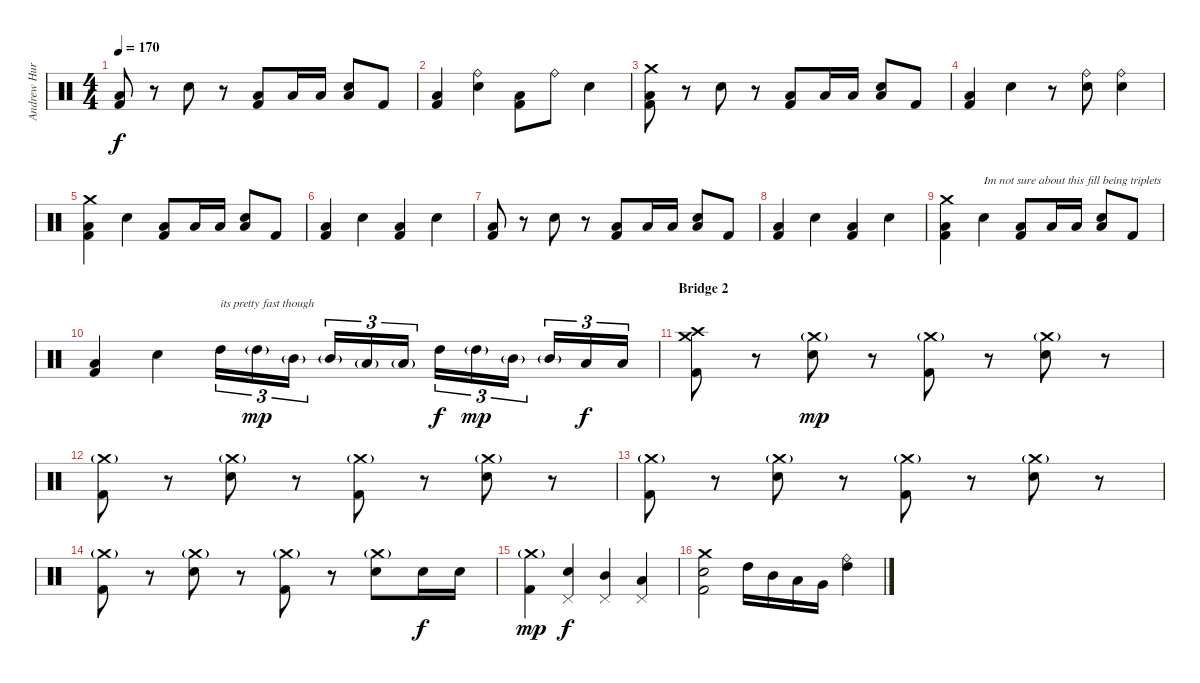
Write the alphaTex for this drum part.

\track ("Andrew Hurley (Drums)" "Andrew Hur") {instrument percussion}
\staff {score}
\articulation defaults
\ts (4 4)
\tempo 170
\clef neutral
\ks c
("Kick (hit) 2" "Low Floor Tom (hit)").8{dy f} r.8 "Electric Snare (hit)".8 r.8 ("Kick (hit) 2" "Low Floor Tom (hit)").8 "Low Floor Tom (hit)".16 "Low Floor Tom (hit)".16 ("Electric Snare (hit)" "Low Floor Tom (hit)").8 "Kick (hit) 2".8 |
("Kick (hit) 2" "Low Floor Tom (hit)").4 ("Ride (bell)" "Electric Snare (hit)").4 ("Kick (hit) 2" "Low Floor Tom (hit)").8 "Ride (bell)".8 "Electric Snare (hit)".4 |
("Crash medium (hit)" "Kick (hit) 2" "Low Floor Tom (hit)").8 r.8 "Electric Snare (hit)".8 r.8 ("Kick (hit) 2" "Low Floor Tom (hit)").8 "Low Floor Tom (hit)".16 "Low Floor Tom (hit)".16 ("Electric Snare (hit)" "Low Floor Tom (hit)").8 "Kick (hit) 2".8 |
("Kick (hit) 2" "Low Floor Tom (hit)").4 "Electric Snare (hit)".4 r.8 ("Ride (bell)" "Electric Snare (hit)").8 ("Ride (bell)" "Electric Snare (hit)").4 |
("Crash medium (hit)" "Kick (hit) 2" "Low Floor Tom (hit)").4 "Electric Snare (hit)".4 ("Kick (hit) 2" "Low Floor Tom (hit)").8 "Low Floor Tom (hit)".16 "Low Floor Tom (hit)".16 ("Electric Snare (hit)" "Low Floor Tom (hit)").8 "Kick (hit) 2".8 |
("Kick (hit) 2" "Low Floor Tom (hit)").4 "Electric Snare (hit)".4 ("Kick (hit) 2" "Low Floor Tom (hit)").4 "Electric Snare (hit)".4 |
("Kick (hit) 2" "Low Floor Tom (hit)").8 r.8 "Electric Snare (hit)".8 r.8 ("Kick (hit) 2" "Low Floor Tom (hit)").8 "Low Floor Tom (hit)".16 "Low Floor Tom (hit)".16 ("Electric Snare (hit)" "Low Floor Tom (hit)").8 "Kick (hit) 2".8 |
("Kick (hit) 2" "Low Floor Tom (hit)").4 "Electric Snare (hit)".4 ("Kick (hit) 2" "Low Floor Tom (hit)").4 "Electric Snare (hit)".4 |
("Crash medium (hit)" "Kick (hit) 2" "Low Floor Tom (hit)").4 "Electric Snare (hit)".4{txt "Im not sure about this fill being triplets"} ("Kick (hit) 2" "Low Floor Tom (hit)").8 "Low Floor Tom (hit)".16 "Low Floor Tom (hit)".16 ("Electric Snare (hit)" "Low Floor Tom (hit)").8 "Kick (hit) 2".8 |
("Kick (hit) 2" "Low Floor Tom (hit)").4 "Electric Snare (hit)".4 "High Tom (hit)".16{tu (3 2) txt "its pretty fast though"} "High Tom (hit)"{g}.16{tu (3 2) dy mp} "Mid Tom (hit)"{g}.16{tu (3 2)} "Mid Tom (hit)"{g}.16{tu (3 2)} "Low Tom (hit)"{g}.16{tu (3 2)} "Low Tom (hit)"{g}.16{tu (3 2)} "High Tom (hit)".16{tu (3 2) dy f} "High Tom (hit)"{g}.16{tu (3 2) dy mp} "Mid Tom (hit)"{g}.16{tu (3 2)} "Mid Tom (hit)"{g}.16{tu (3 2)} "Low Tom (hit)".16{tu (3 2) dy f} "Low Tom (hit)".16{tu (3 2)} |
\section ("" "Bridge 2")
("Crash high (hit)" "Crash medium (hit)" "Kick (hit) 2").8 r.8 ("Crash medium (hit)"{g} "Electric Snare (hit)").8{dy mp} r.8 ("Crash medium (hit)"{g} "Kick (hit) 2").8 r.8 ("Crash medium (hit)"{g} "Electric Snare (hit)").8 r.8 |
("Crash medium (hit)"{g} "Kick (hit) 2").8 r.8 ("Crash medium (hit)"{g} "Electric Snare (hit)").8 r.8 ("Crash medium (hit)"{g} "Kick (hit) 2").8 r.8 ("Crash medium (hit)"{g} "Electric Snare (hit)").8 r.8 |
("Crash medium (hit)"{g} "Kick (hit) 2").8 r.8 ("Crash medium (hit)"{g} "Electric Snare (hit)").8 r.8 ("Crash medium (hit)"{g} "Kick (hit) 2").8 r.8 ("Crash medium (hit)"{g} "Electric Snare (hit)").8 r.8 |
("Crash medium (hit)"{g} "Kick (hit) 2").8 r.8 ("Crash medium (hit)"{g} "Electric Snare (hit)").8 r.8 ("Crash medium (hit)"{g} "Kick (hit) 2").8 r.8 ("Crash medium (hit)"{g} "Electric Snare (hit)").8 "Electric Snare (hit)".16{dy f} "Electric Snare (hit)".16 |
("Crash medium (hit)"{g} "Kick (hit) 2").4{dy mp} ("Pedal Hi-Hat (hit)" "Electric Snare (hit)").4{dy f} ("Pedal Hi-Hat (hit)" "Mid Tom (hit)").4 ("Pedal Hi-Hat (hit)" "Low Tom (hit)").4 |
("Crash medium (hit)" "Electric Snare (hit)" "Kick (hit) 2").2 "High Tom (hit)".16 "Mid Tom (hit)".16 "Low Tom (hit)".16 "Very Low Tom (hit)".16 ("Ride (bell)" "High Tom (hit)").4
